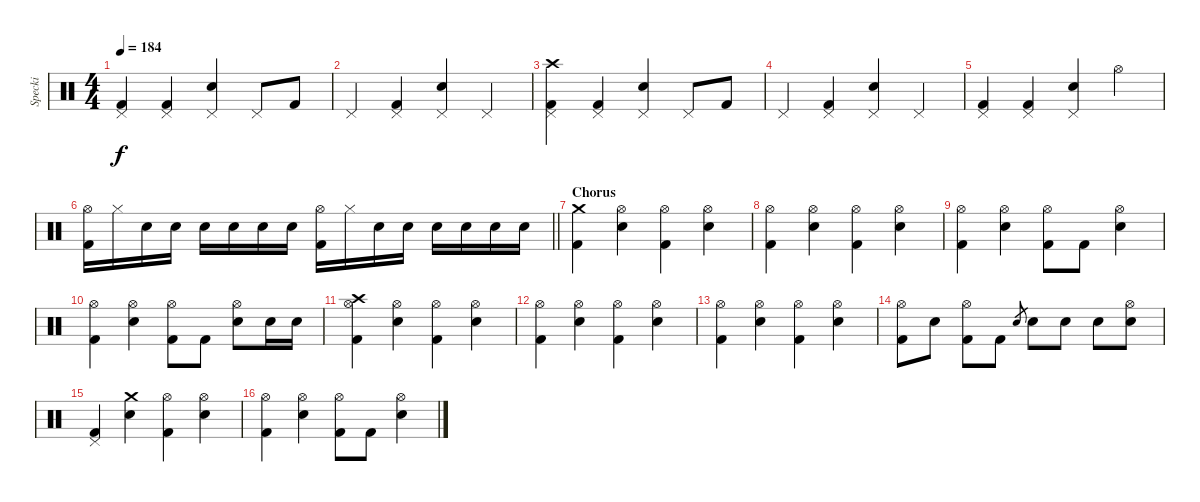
\track ("Specki" "Specki") {instrument percussion}
\staff {score}
\articulation defaults
\ts (4 4)
\tempo 184
\clef neutral
\ks c
("Pedal Hi-Hat (hit)" "Kick (hit) 2").4{dy f} ("Pedal Hi-Hat (hit)" "Kick (hit) 2").4 ("Pedal Hi-Hat (hit)" "Electric Snare (hit)").4 "Pedal Hi-Hat (hit)".8 "Kick (hit) 2".8 |
"Pedal Hi-Hat (hit)".4 ("Pedal Hi-Hat (hit)" "Kick (hit) 2").4 ("Pedal Hi-Hat (hit)" "Electric Snare (hit)").4 "Pedal Hi-Hat (hit)".4 |
("Crash high (hit)" "Pedal Hi-Hat (hit)" "Kick (hit) 2").4 ("Pedal Hi-Hat (hit)" "Kick (hit) 2").4 ("Pedal Hi-Hat (hit)" "Electric Snare (hit)").4 "Pedal Hi-Hat (hit)".8 "Kick (hit) 2".8 |
"Pedal Hi-Hat (hit)".4 ("Pedal Hi-Hat (hit)" "Kick (hit) 2").4 ("Pedal Hi-Hat (hit)" "Electric Snare (hit)").4 "Pedal Hi-Hat (hit)".4 |
("Pedal Hi-Hat (hit)" "Kick (hit) 2").4 ("Pedal Hi-Hat (hit)" "Kick (hit) 2").4 ("Pedal Hi-Hat (hit)" "Electric Snare (hit)").4 "Hi-Hat (open)".4 |
\barLineRight lightlight
("Hi-Hat (open)" "Kick (hit) 2").16 "Hi-Hat (closed)".16 "Electric Snare (hit)".16 "Electric Snare (hit)".16 "Electric Snare (hit)".16 "Electric Snare (hit)".16 "Electric Snare (hit)".16 "Electric Snare (hit)".16 ("Hi-Hat (open)" "Kick (hit) 2").16 "Hi-Hat (closed)".16 "Electric Snare (hit)".16 "Electric Snare (hit)".16 "Electric Snare (hit)".16 "Electric Snare (hit)".16 "Electric Snare (hit)".16 "Electric Snare (hit)".16 |
\section ("" "Chorus")
("Crash medium (hit)" "Kick (hit) 2").4 ("Hi-Hat (open)" "Electric Snare (hit)").4 ("Hi-Hat (open)" "Kick (hit) 2").4 ("Hi-Hat (open)" "Electric Snare (hit)").4 |
("Hi-Hat (open)" "Kick (hit) 2").4 ("Hi-Hat (open)" "Electric Snare (hit)").4 ("Hi-Hat (open)" "Kick (hit) 2").4 ("Hi-Hat (open)" "Electric Snare (hit)").4 |
("Hi-Hat (open)" "Kick (hit) 2").4 ("Hi-Hat (open)" "Electric Snare (hit)").4 ("Hi-Hat (open)" "Kick (hit) 2").8 "Kick (hit) 2".8 ("Hi-Hat (open)" "Electric Snare (hit)").4 |
("Hi-Hat (open)" "Kick (hit) 2").4 ("Hi-Hat (open)" "Electric Snare (hit)").4 ("Hi-Hat (open)" "Kick (hit) 2").8 "Kick (hit) 2".8 ("Hi-Hat (open)" "Electric Snare (hit)").8 "Electric Snare (hit)".16 "Electric Snare (hit)".16 |
("Crash high (hit)" "Hi-Hat (open)" "Kick (hit) 2").4 ("Hi-Hat (open)" "Electric Snare (hit)").4 ("Hi-Hat (open)" "Kick (hit) 2").4 ("Hi-Hat (open)" "Electric Snare (hit)").4 |
("Hi-Hat (open)" "Kick (hit) 2").4 ("Hi-Hat (open)" "Electric Snare (hit)").4 ("Hi-Hat (open)" "Kick (hit) 2").4 ("Hi-Hat (open)" "Electric Snare (hit)").4 |
("Hi-Hat (open)" "Kick (hit) 2").4 ("Hi-Hat (open)" "Electric Snare (hit)").4 ("Hi-Hat (open)" "Kick (hit) 2").4 ("Hi-Hat (open)" "Electric Snare (hit)").4 |
("Hi-Hat (open)" "Kick (hit) 2").8 "Electric Snare (hit)".8 ("Hi-Hat (open)" "Kick (hit) 2").8 "Kick (hit) 2".8 "Electric Snare (hit)".8{gr} "Electric Snare (hit)".8 "Electric Snare (hit)".8 "Electric Snare (hit)".8 ("Hi-Hat (open)" "Electric Snare (hit)").8 |
("Pedal Hi-Hat (hit)" "Kick (hit) 2").4 ("Crash medium (hit)" "Electric Snare (hit)").4 ("Hi-Hat (open)" "Kick (hit) 2").4 ("Hi-Hat (open)" "Electric Snare (hit)").4 |
("Hi-Hat (open)" "Kick (hit) 2").4 ("Hi-Hat (open)" "Electric Snare (hit)").4 ("Hi-Hat (open)" "Kick (hit) 2").8 "Kick (hit) 2".8 ("Hi-Hat (open)" "Electric Snare (hit)").4
